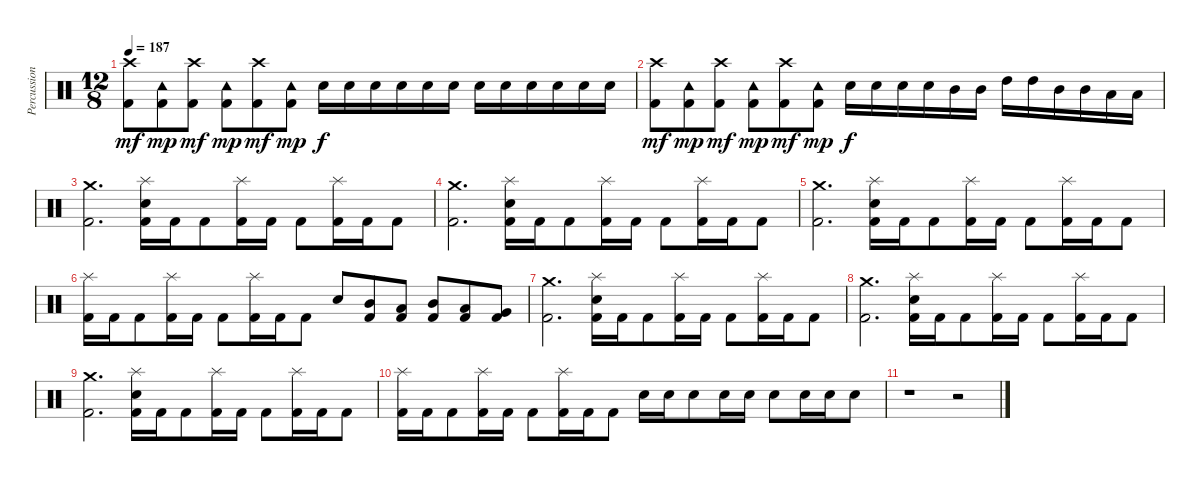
\track ("Percussion" "Percussion") {instrument percussion}
\staff {score}
\articulation defaults
\ts (12 8)
\tempo 187
\clef neutral
\ks c
("Crash high (hit)" "Kick (hit) 2").8{dy mf} ("Tambourine (hit)" "Kick (hit) 2").8{dy mp} ("Crash high (hit)" "Kick (hit) 2").8{dy mf} ("Tambourine (hit)" "Kick (hit) 2").8{dy mp} ("Crash high (hit)" "Kick (hit) 2").8{dy mf} ("Tambourine (hit)" "Kick (hit) 2").8{dy mp} "Snare (hit) 2".16{dy f} "Snare (hit) 2".16 "Snare (hit) 2".16 "Snare (hit) 2".16 "Snare (hit) 2".16 "Snare (hit) 2".16 "Snare (hit) 2".16 "Snare (hit) 2".16 "Snare (hit) 2".16 "Snare (hit) 2".16 "Snare (hit) 2".16 "Snare (hit) 2".16 |
("Crash high (hit)" "Kick (hit) 2").8{dy mf} ("Tambourine (hit)" "Kick (hit) 2").8{dy mp} ("Crash high (hit)" "Kick (hit) 2").8{dy mf} ("Tambourine (hit)" "Kick (hit) 2").8{dy mp} ("Crash high (hit)" "Kick (hit) 2").8{dy mf} ("Tambourine (hit)" "Kick (hit) 2").8{dy mp} "Snare (hit) 2".16{dy f} "Snare (hit) 2".16 "Snare (hit) 2".16 "Snare (hit) 2".16 "Mid Tom (hit)".16 "Mid Tom (hit)".16 "High Tom (hit)".16 "High Tom (hit)".16 "Mid Tom (hit)".16 "Mid Tom (hit)".16 "Low Tom (hit)".16 "Low Tom (hit)".16 |
("Crash medium (hit)" "Kick (hit) 2").2{d} ("Splash (hit)" "Snare (hit) 2" "Kick (hit) 2").16 "Kick (hit) 2".16 "Kick (hit) 2".8 ("Splash (hit)" "Kick (hit) 2").16 "Kick (hit) 2".16 "Kick (hit) 2".8 ("Splash (hit)" "Kick (hit) 2").16 "Kick (hit) 2".16 "Kick (hit) 2".8 |
("Crash medium (hit)" "Kick (hit) 2").2{d} ("Splash (hit)" "Snare (hit) 2" "Kick (hit) 2").16 "Kick (hit) 2".16 "Kick (hit) 2".8 ("Splash (hit)" "Kick (hit) 2").16 "Kick (hit) 2".16 "Kick (hit) 2".8 ("Splash (hit)" "Kick (hit) 2").16 "Kick (hit) 2".16 "Kick (hit) 2".8 |
("Crash medium (hit)" "Kick (hit) 2").2{d} ("Splash (hit)" "Snare (hit) 2" "Kick (hit) 2").16 "Kick (hit) 2".16 "Kick (hit) 2".8 ("Splash (hit)" "Kick (hit) 2").16 "Kick (hit) 2".16 "Kick (hit) 2".8 ("Splash (hit)" "Kick (hit) 2").16 "Kick (hit) 2".16 "Kick (hit) 2".8 |
("Splash (hit)" "Kick (hit) 2").16 "Kick (hit) 2".16 "Kick (hit) 2".8 ("Splash (hit)" "Kick (hit) 2").16 "Kick (hit) 2".16 "Kick (hit) 2".8 ("Splash (hit)" "Kick (hit) 2").16 "Kick (hit) 2".16 "Kick (hit) 2".8 "Snare (hit) 2".8 ("Mid Tom (hit)" "Kick (hit) 2").8 ("Low Tom (hit)" "Kick (hit) 2").8 ("Mid Tom (hit)" "Kick (hit) 2").8 ("Low Tom (hit)" "Kick (hit) 2").8 ("Very Low Tom (hit)" "Kick (hit) 2").8 |
("Crash medium (hit)" "Kick (hit) 2").2{d} ("Splash (hit)" "Snare (hit) 2" "Kick (hit) 2").16 "Kick (hit) 2".16 "Kick (hit) 2".8 ("Splash (hit)" "Kick (hit) 2").16 "Kick (hit) 2".16 "Kick (hit) 2".8 ("Splash (hit)" "Kick (hit) 2").16 "Kick (hit) 2".16 "Kick (hit) 2".8 |
("Crash medium (hit)" "Kick (hit) 2").2{d} ("Splash (hit)" "Snare (hit) 2" "Kick (hit) 2").16 "Kick (hit) 2".16 "Kick (hit) 2".8 ("Splash (hit)" "Kick (hit) 2").16 "Kick (hit) 2".16 "Kick (hit) 2".8 ("Splash (hit)" "Kick (hit) 2").16 "Kick (hit) 2".16 "Kick (hit) 2".8 |
("Crash medium (hit)" "Kick (hit) 2").2{d} ("Splash (hit)" "Snare (hit) 2" "Kick (hit) 2").16 "Kick (hit) 2".16 "Kick (hit) 2".8 ("Splash (hit)" "Kick (hit) 2").16 "Kick (hit) 2".16 "Kick (hit) 2".8 ("Splash (hit)" "Kick (hit) 2").16 "Kick (hit) 2".16 "Kick (hit) 2".8 |
("Splash (hit)" "Kick (hit) 2").16 "Kick (hit) 2".16 "Kick (hit) 2".8 ("Splash (hit)" "Kick (hit) 2").16 "Kick (hit) 2".16 "Kick (hit) 2".8 ("Splash (hit)" "Kick (hit) 2").16 "Kick (hit) 2".16 "Kick (hit) 2".8 "Snare (hit) 2".16 "Snare (hit) 2".16 "Snare (hit) 2".8 "Snare (hit) 2".16 "Snare (hit) 2".16 "Snare (hit) 2".8 "Snare (hit) 2".16 "Snare (hit) 2".16 "Snare (hit) 2".8 |
r.1 r.2
